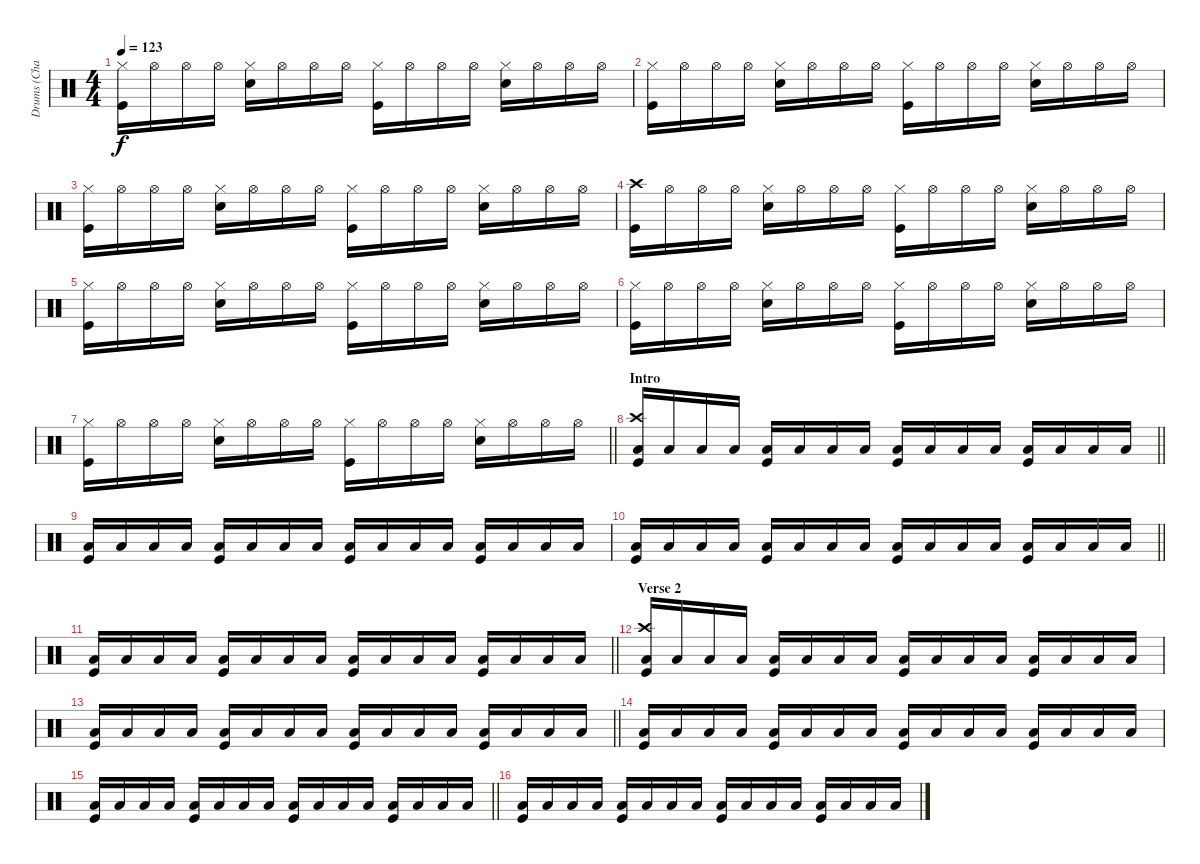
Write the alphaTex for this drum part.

\track ("Drums (Chad Smith)" "Drums (Cha") {instrument percussion}
\staff {score}
\articulation defaults
\ts (4 4)
\tempo 123
\clef neutral
\ks c
("Hi-Hat (closed)" "Kick (hit)").16{dy f} "Hi-Hat (open)".16 "Hi-Hat (open)".16 "Hi-Hat (open)".16 ("Hi-Hat (closed)" "Snare (hit) 2").16 "Hi-Hat (open)".16 "Hi-Hat (open)".16 "Hi-Hat (open)".16 ("Hi-Hat (closed)" "Kick (hit)").16 "Hi-Hat (open)".16 "Hi-Hat (open)".16 "Hi-Hat (open)".16 ("Hi-Hat (closed)" "Snare (hit) 2").16 "Hi-Hat (open)".16 "Hi-Hat (open)".16 "Hi-Hat (open)".16 |
("Hi-Hat (closed)" "Kick (hit)").16 "Hi-Hat (open)".16 "Hi-Hat (open)".16 "Hi-Hat (open)".16 ("Hi-Hat (closed)" "Snare (hit) 2").16 "Hi-Hat (open)".16 "Hi-Hat (open)".16 "Hi-Hat (open)".16 ("Hi-Hat (closed)" "Kick (hit)").16 "Hi-Hat (open)".16 "Hi-Hat (open)".16 "Hi-Hat (open)".16 ("Hi-Hat (closed)" "Snare (hit) 2").16 "Hi-Hat (open)".16 "Hi-Hat (open)".16 "Hi-Hat (open)".16 |
("Hi-Hat (closed)" "Kick (hit)").16 "Hi-Hat (open)".16 "Hi-Hat (open)".16 "Hi-Hat (open)".16 ("Hi-Hat (closed)" "Snare (hit) 2").16 "Hi-Hat (open)".16 "Hi-Hat (open)".16 "Hi-Hat (open)".16 ("Hi-Hat (closed)" "Kick (hit)").16 "Hi-Hat (open)".16 "Hi-Hat (open)".16 "Hi-Hat (open)".16 ("Hi-Hat (closed)" "Snare (hit) 2").16 "Hi-Hat (open)".16 "Hi-Hat (open)".16 "Hi-Hat (open)".16 |
("Crash high (hit)" "Kick (hit)").16 "Hi-Hat (open)".16 "Hi-Hat (open)".16 "Hi-Hat (open)".16 ("Hi-Hat (closed)" "Snare (hit) 2").16 "Hi-Hat (open)".16 "Hi-Hat (open)".16 "Hi-Hat (open)".16 ("Hi-Hat (closed)" "Kick (hit)").16 "Hi-Hat (open)".16 "Hi-Hat (open)".16 "Hi-Hat (open)".16 ("Hi-Hat (closed)" "Snare (hit) 2").16 "Hi-Hat (open)".16 "Hi-Hat (open)".16 "Hi-Hat (open)".16 |
("Hi-Hat (closed)" "Kick (hit)").16 "Hi-Hat (open)".16 "Hi-Hat (open)".16 "Hi-Hat (open)".16 ("Hi-Hat (closed)" "Snare (hit) 2").16 "Hi-Hat (open)".16 "Hi-Hat (open)".16 "Hi-Hat (open)".16 ("Hi-Hat (closed)" "Kick (hit)").16 "Hi-Hat (open)".16 "Hi-Hat (open)".16 "Hi-Hat (open)".16 ("Hi-Hat (closed)" "Snare (hit) 2").16 "Hi-Hat (open)".16 "Hi-Hat (open)".16 "Hi-Hat (open)".16 |
("Hi-Hat (closed)" "Kick (hit)").16 "Hi-Hat (open)".16 "Hi-Hat (open)".16 "Hi-Hat (open)".16 ("Hi-Hat (closed)" "Snare (hit) 2").16 "Hi-Hat (open)".16 "Hi-Hat (open)".16 "Hi-Hat (open)".16 ("Hi-Hat (closed)" "Kick (hit)").16 "Hi-Hat (open)".16 "Hi-Hat (open)".16 "Hi-Hat (open)".16 ("Hi-Hat (closed)" "Snare (hit) 2").16 "Hi-Hat (open)".16 "Hi-Hat (open)".16 "Hi-Hat (open)".16 |
\barLineRight lightlight
("Hi-Hat (closed)" "Kick (hit)").16 "Hi-Hat (open)".16 "Hi-Hat (open)".16 "Hi-Hat (open)".16 ("Hi-Hat (closed)" "Snare (hit) 2").16 "Hi-Hat (open)".16 "Hi-Hat (open)".16 "Hi-Hat (open)".16 ("Hi-Hat (closed)" "Kick (hit)").16 "Hi-Hat (open)".16 "Hi-Hat (open)".16 "Hi-Hat (open)".16 ("Hi-Hat (closed)" "Snare (hit) 2").16 "Hi-Hat (open)".16 "Hi-Hat (open)".16 "Hi-Hat (open)".16 |
\section ("" "Intro")
\barLineRight lightlight
("Crash high (hit)" "Kick (hit)" "Low Floor Tom (hit)").16 "Low Floor Tom (hit)".16 "Low Floor Tom (hit)".16 "Low Floor Tom (hit)".16 ("Kick (hit)" "Low Floor Tom (hit)").16 "Low Floor Tom (hit)".16 "Low Floor Tom (hit)".16 "Low Floor Tom (hit)".16 ("Kick (hit)" "Low Floor Tom (hit)").16 "Low Floor Tom (hit)".16 "Low Floor Tom (hit)".16 "Low Floor Tom (hit)".16 ("Kick (hit)" "Low Floor Tom (hit)").16 "Low Floor Tom (hit)".16 "Low Floor Tom (hit)".16 "Low Floor Tom (hit)".16 |
("Kick (hit)" "Low Floor Tom (hit)").16 "Low Floor Tom (hit)".16 "Low Floor Tom (hit)".16 "Low Floor Tom (hit)".16 ("Kick (hit)" "Low Floor Tom (hit)").16 "Low Floor Tom (hit)".16 "Low Floor Tom (hit)".16 "Low Floor Tom (hit)".16 ("Kick (hit)" "Low Floor Tom (hit)").16 "Low Floor Tom (hit)".16 "Low Floor Tom (hit)".16 "Low Floor Tom (hit)".16 ("Kick (hit)" "Low Floor Tom (hit)").16 "Low Floor Tom (hit)".16 "Low Floor Tom (hit)".16 "Low Floor Tom (hit)".16 |
\barLineRight lightlight
("Kick (hit)" "Low Floor Tom (hit)").16 "Low Floor Tom (hit)".16 "Low Floor Tom (hit)".16 "Low Floor Tom (hit)".16 ("Kick (hit)" "Low Floor Tom (hit)").16 "Low Floor Tom (hit)".16 "Low Floor Tom (hit)".16 "Low Floor Tom (hit)".16 ("Kick (hit)" "Low Floor Tom (hit)").16 "Low Floor Tom (hit)".16 "Low Floor Tom (hit)".16 "Low Floor Tom (hit)".16 ("Kick (hit)" "Low Floor Tom (hit)").16 "Low Floor Tom (hit)".16 "Low Floor Tom (hit)".16 "Low Floor Tom (hit)".16 |
\barLineRight lightlight
("Kick (hit)" "Low Floor Tom (hit)").16 "Low Floor Tom (hit)".16 "Low Floor Tom (hit)".16 "Low Floor Tom (hit)".16 ("Kick (hit)" "Low Floor Tom (hit)").16 "Low Floor Tom (hit)".16 "Low Floor Tom (hit)".16 "Low Floor Tom (hit)".16 ("Kick (hit)" "Low Floor Tom (hit)").16 "Low Floor Tom (hit)".16 "Low Floor Tom (hit)".16 "Low Floor Tom (hit)".16 ("Kick (hit)" "Low Floor Tom (hit)").16 "Low Floor Tom (hit)".16 "Low Floor Tom (hit)".16 "Low Floor Tom (hit)".16 |
\section ("" "Verse 2")
("Crash high (hit)" "Kick (hit)" "Low Floor Tom (hit)").16 "Low Floor Tom (hit)".16 "Low Floor Tom (hit)".16 "Low Floor Tom (hit)".16 ("Kick (hit)" "Low Floor Tom (hit)").16 "Low Floor Tom (hit)".16 "Low Floor Tom (hit)".16 "Low Floor Tom (hit)".16 ("Kick (hit)" "Low Floor Tom (hit)").16 "Low Floor Tom (hit)".16 "Low Floor Tom (hit)".16 "Low Floor Tom (hit)".16 ("Kick (hit)" "Low Floor Tom (hit)").16 "Low Floor Tom (hit)".16 "Low Floor Tom (hit)".16 "Low Floor Tom (hit)".16 |
\barLineRight lightlight
("Kick (hit)" "Low Floor Tom (hit)").16 "Low Floor Tom (hit)".16 "Low Floor Tom (hit)".16 "Low Floor Tom (hit)".16 ("Kick (hit)" "Low Floor Tom (hit)").16 "Low Floor Tom (hit)".16 "Low Floor Tom (hit)".16 "Low Floor Tom (hit)".16 ("Kick (hit)" "Low Floor Tom (hit)").16 "Low Floor Tom (hit)".16 "Low Floor Tom (hit)".16 "Low Floor Tom (hit)".16 ("Kick (hit)" "Low Floor Tom (hit)").16 "Low Floor Tom (hit)".16 "Low Floor Tom (hit)".16 "Low Floor Tom (hit)".16 |
("Kick (hit)" "Low Floor Tom (hit)").16 "Low Floor Tom (hit)".16 "Low Floor Tom (hit)".16 "Low Floor Tom (hit)".16 ("Kick (hit)" "Low Floor Tom (hit)").16 "Low Floor Tom (hit)".16 "Low Floor Tom (hit)".16 "Low Floor Tom (hit)".16 ("Kick (hit)" "Low Floor Tom (hit)").16 "Low Floor Tom (hit)".16 "Low Floor Tom (hit)".16 "Low Floor Tom (hit)".16 ("Kick (hit)" "Low Floor Tom (hit)").16 "Low Floor Tom (hit)".16 "Low Floor Tom (hit)".16 "Low Floor Tom (hit)".16 |
\barLineRight lightlight
("Kick (hit)" "Low Floor Tom (hit)").16 "Low Floor Tom (hit)".16 "Low Floor Tom (hit)".16 "Low Floor Tom (hit)".16 ("Kick (hit)" "Low Floor Tom (hit)").16 "Low Floor Tom (hit)".16 "Low Floor Tom (hit)".16 "Low Floor Tom (hit)".16 ("Kick (hit)" "Low Floor Tom (hit)").16 "Low Floor Tom (hit)".16 "Low Floor Tom (hit)".16 "Low Floor Tom (hit)".16 ("Kick (hit)" "Low Floor Tom (hit)").16 "Low Floor Tom (hit)".16 "Low Floor Tom (hit)".16 "Low Floor Tom (hit)".16 |
("Kick (hit)" "Low Floor Tom (hit)").16 "Low Floor Tom (hit)".16 "Low Floor Tom (hit)".16 "Low Floor Tom (hit)".16 ("Kick (hit)" "Low Floor Tom (hit)").16 "Low Floor Tom (hit)".16 "Low Floor Tom (hit)".16 "Low Floor Tom (hit)".16 ("Kick (hit)" "Low Floor Tom (hit)").16 "Low Floor Tom (hit)".16 "Low Floor Tom (hit)".16 "Low Floor Tom (hit)".16 ("Kick (hit)" "Low Floor Tom (hit)").16 "Low Floor Tom (hit)".16 "Low Floor Tom (hit)".16 "Low Floor Tom (hit)".16
